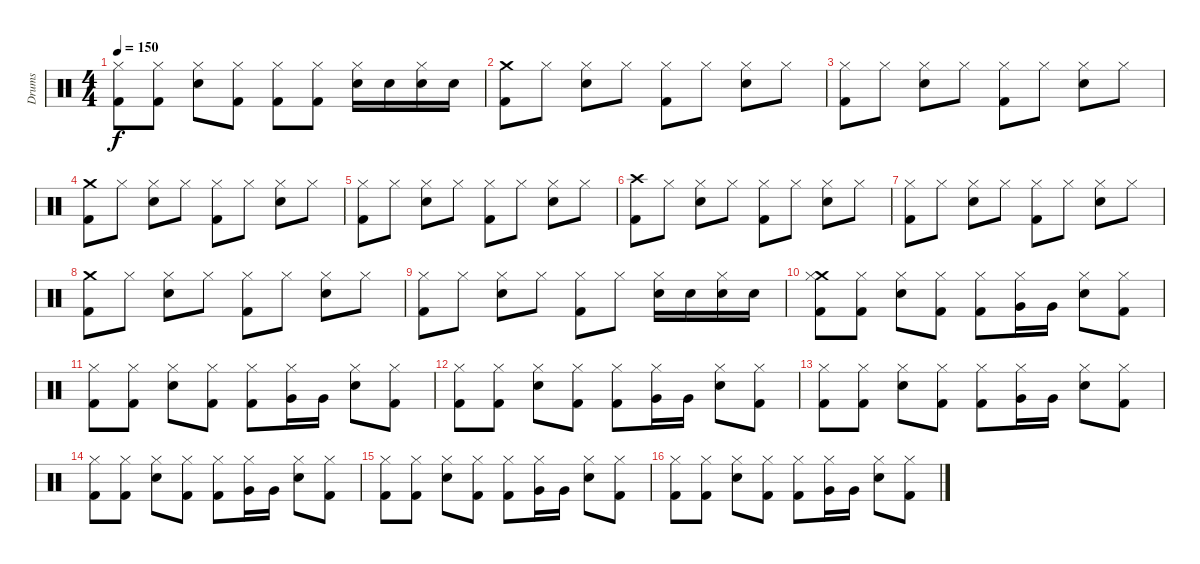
\track ("Drums" "Drums") {instrument percussion}
\staff {score}
\articulation defaults
\ts (4 4)
\tempo 150
\clef neutral
\ks c
("Hi-Hat (closed)" "Kick (hit) 2").8{dy f} ("Hi-Hat (closed)" "Kick (hit) 2").8 ("Hi-Hat (closed)" "Snare (hit) 2").8 ("Hi-Hat (closed)" "Kick (hit) 2").8 ("Hi-Hat (closed)" "Kick (hit) 2").8 ("Hi-Hat (closed)" "Kick (hit) 2").8 ("Snare (hit) 2" "Hi-Hat (closed)").16 "Snare (hit) 2".16 ("Snare (hit) 2" "Hi-Hat (closed)").16 "Snare (hit) 2".16 |
("Crash medium (hit)" "Kick (hit) 2").8 "Hi-Hat (closed)".8 ("Hi-Hat (closed)" "Snare (hit) 2").8 "Hi-Hat (closed)".8 ("Hi-Hat (closed)" "Kick (hit) 2").8 "Hi-Hat (closed)".8 ("Hi-Hat (closed)" "Snare (hit) 2").8 "Hi-Hat (closed)".8 |
("Hi-Hat (closed)" "Kick (hit) 2").8 "Hi-Hat (closed)".8 ("Hi-Hat (closed)" "Snare (hit) 2").8 "Hi-Hat (closed)".8 ("Hi-Hat (closed)" "Kick (hit) 2").8 "Hi-Hat (closed)".8 ("Hi-Hat (closed)" "Snare (hit) 2").8 "Hi-Hat (closed)".8 |
("Crash medium (hit)" "Kick (hit) 2").8 "Hi-Hat (closed)".8 ("Hi-Hat (closed)" "Snare (hit) 2").8 "Hi-Hat (closed)".8 ("Hi-Hat (closed)" "Kick (hit) 2").8 "Hi-Hat (closed)".8 ("Hi-Hat (closed)" "Snare (hit) 2").8 "Hi-Hat (closed)".8 |
("Hi-Hat (closed)" "Kick (hit) 2").8 "Hi-Hat (closed)".8 ("Hi-Hat (closed)" "Snare (hit) 2").8 "Hi-Hat (closed)".8 ("Hi-Hat (closed)" "Kick (hit) 2").8 "Hi-Hat (closed)".8 ("Hi-Hat (closed)" "Snare (hit) 2").8 "Hi-Hat (closed)".8 |
("Crash high (hit)" "Kick (hit) 2").8 "Hi-Hat (closed)".8 ("Hi-Hat (closed)" "Snare (hit) 2").8 "Hi-Hat (closed)".8 ("Hi-Hat (closed)" "Kick (hit) 2").8 "Hi-Hat (closed)".8 ("Hi-Hat (closed)" "Snare (hit) 2").8 "Hi-Hat (closed)".8 |
("Hi-Hat (closed)" "Kick (hit) 2").8 "Hi-Hat (closed)".8 ("Hi-Hat (closed)" "Snare (hit) 2").8 "Hi-Hat (closed)".8 ("Hi-Hat (closed)" "Kick (hit) 2").8 "Hi-Hat (closed)".8 ("Hi-Hat (closed)" "Snare (hit) 2").8 "Hi-Hat (closed)".8 |
("Crash medium (hit)" "Kick (hit) 2").8 "Hi-Hat (closed)".8 ("Hi-Hat (closed)" "Snare (hit) 2").8 "Hi-Hat (closed)".8 ("Hi-Hat (closed)" "Kick (hit) 2").8 "Hi-Hat (closed)".8 ("Hi-Hat (closed)" "Snare (hit) 2").8 "Hi-Hat (closed)".8 |
("Hi-Hat (closed)" "Kick (hit) 2").8 "Hi-Hat (closed)".8 ("Hi-Hat (closed)" "Snare (hit) 2").8 "Hi-Hat (closed)".8 ("Hi-Hat (closed)" "Kick (hit) 2").8 "Hi-Hat (closed)".8 ("Snare (hit) 2" "Hi-Hat (closed)").16 "Snare (hit) 2".16 ("Snare (hit) 2" "Hi-Hat (closed)").16 "Snare (hit) 2".16 |
("Crash medium (hit)" "Hi-Hat (closed)" "Kick (hit) 2").8 ("Hi-Hat (closed)" "Kick (hit) 2").8 ("Hi-Hat (closed)" "Snare (hit) 2").8 ("Hi-Hat (closed)" "Kick (hit) 2").8 ("Hi-Hat (closed)" "Kick (hit) 2").8 ("Hi-Hat (closed)" "Very Low Tom (hit)").16 "Very Low Tom (hit)".16 ("Hi-Hat (closed)" "Snare (hit) 2").8 ("Hi-Hat (closed)" "Kick (hit) 2").8 |
("Hi-Hat (closed)" "Kick (hit) 2").8 ("Hi-Hat (closed)" "Kick (hit) 2").8 ("Hi-Hat (closed)" "Snare (hit) 2").8 ("Hi-Hat (closed)" "Kick (hit) 2").8 ("Hi-Hat (closed)" "Kick (hit) 2").8 ("Hi-Hat (closed)" "Very Low Tom (hit)").16 "Very Low Tom (hit)".16 ("Hi-Hat (closed)" "Snare (hit) 2").8 ("Hi-Hat (closed)" "Kick (hit) 2").8 |
("Hi-Hat (closed)" "Kick (hit) 2").8 ("Hi-Hat (closed)" "Kick (hit) 2").8 ("Hi-Hat (closed)" "Snare (hit) 2").8 ("Hi-Hat (closed)" "Kick (hit) 2").8 ("Hi-Hat (closed)" "Kick (hit) 2").8 ("Hi-Hat (closed)" "Very Low Tom (hit)").16 "Very Low Tom (hit)".16 ("Hi-Hat (closed)" "Snare (hit) 2").8 ("Hi-Hat (closed)" "Kick (hit) 2").8 |
("Hi-Hat (closed)" "Kick (hit) 2").8 ("Hi-Hat (closed)" "Kick (hit) 2").8 ("Hi-Hat (closed)" "Snare (hit) 2").8 ("Hi-Hat (closed)" "Kick (hit) 2").8 ("Hi-Hat (closed)" "Kick (hit) 2").8 ("Hi-Hat (closed)" "Very Low Tom (hit)").16 "Very Low Tom (hit)".16 ("Hi-Hat (closed)" "Snare (hit) 2").8 ("Hi-Hat (closed)" "Kick (hit) 2").8 |
("Hi-Hat (closed)" "Kick (hit) 2").8 ("Hi-Hat (closed)" "Kick (hit) 2").8 ("Hi-Hat (closed)" "Snare (hit) 2").8 ("Hi-Hat (closed)" "Kick (hit) 2").8 ("Hi-Hat (closed)" "Kick (hit) 2").8 ("Hi-Hat (closed)" "Very Low Tom (hit)").16 "Very Low Tom (hit)".16 ("Hi-Hat (closed)" "Snare (hit) 2").8 ("Hi-Hat (closed)" "Kick (hit) 2").8 |
("Hi-Hat (closed)" "Kick (hit) 2").8 ("Hi-Hat (closed)" "Kick (hit) 2").8 ("Hi-Hat (closed)" "Snare (hit) 2").8 ("Hi-Hat (closed)" "Kick (hit) 2").8 ("Hi-Hat (closed)" "Kick (hit) 2").8 ("Hi-Hat (closed)" "Very Low Tom (hit)").16 "Very Low Tom (hit)".16 ("Hi-Hat (closed)" "Snare (hit) 2").8 ("Hi-Hat (closed)" "Kick (hit) 2").8 |
("Hi-Hat (closed)" "Kick (hit) 2").8 ("Hi-Hat (closed)" "Kick (hit) 2").8 ("Hi-Hat (closed)" "Snare (hit) 2").8 ("Hi-Hat (closed)" "Kick (hit) 2").8 ("Hi-Hat (closed)" "Kick (hit) 2").8 ("Hi-Hat (closed)" "Very Low Tom (hit)").16 "Very Low Tom (hit)".16 ("Hi-Hat (closed)" "Snare (hit) 2").8 ("Hi-Hat (closed)" "Kick (hit) 2").8
